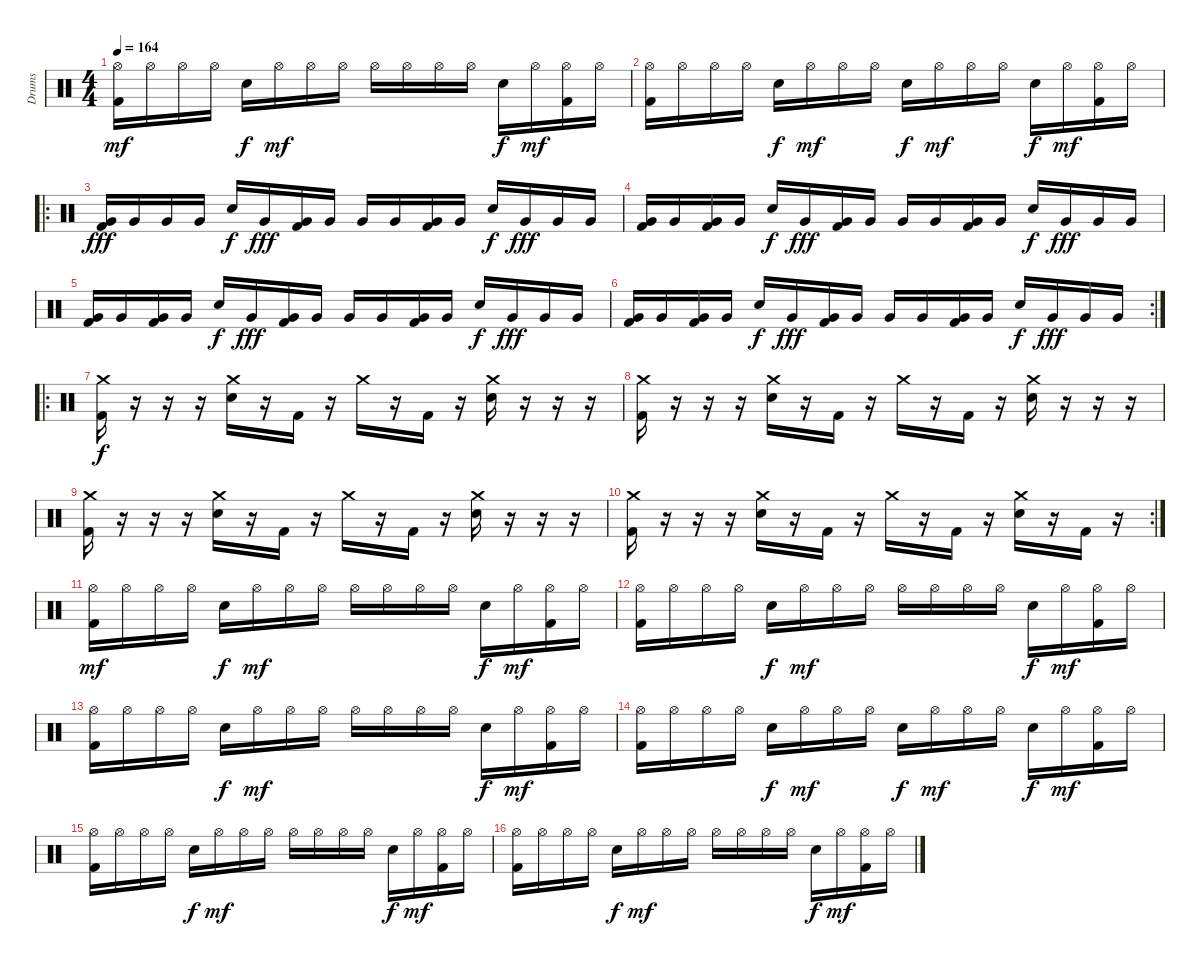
\track ("Drums" "Drums") {instrument percussion}
\staff {score}
\articulation defaults
\ts (4 4)
\tempo 164
\clef neutral
\ks c
("Hi-Hat (open)" "Kick (hit) 2").16{dy mf} "Hi-Hat (open)".16 "Hi-Hat (open)".16 "Hi-Hat (open)".16 "Snare (hit) 2".16{dy f} "Hi-Hat (open)".16{dy mf} "Hi-Hat (open)".16 "Hi-Hat (open)".16 "Hi-Hat (open)".16 "Hi-Hat (open)".16 "Hi-Hat (open)".16 "Hi-Hat (open)".16 "Snare (hit) 2".16{dy f} "Hi-Hat (open)".16{dy mf} ("Hi-Hat (open)" "Kick (hit) 2").16 "Hi-Hat (open)".16 |
("Hi-Hat (open)" "Kick (hit) 2").16 "Hi-Hat (open)".16 "Hi-Hat (open)".16 "Hi-Hat (open)".16 "Snare (hit) 2".16{dy f} "Hi-Hat (open)".16{dy mf} "Hi-Hat (open)".16 "Hi-Hat (open)".16 "Snare (hit) 2".16{dy f} "Hi-Hat (open)".16{dy mf} "Hi-Hat (open)".16 "Hi-Hat (open)".16 "Snare (hit) 2".16{dy f} "Hi-Hat (open)".16{dy mf} ("Hi-Hat (open)" "Kick (hit) 2").16 "Hi-Hat (open)".16 |
\ro
("Very Low Tom (hit)" "Kick (hit) 2").16{dy fff} "Very Low Tom (hit)".16 "Very Low Tom (hit)".16 "Very Low Tom (hit)".16 "Snare (hit) 2".16{dy f} "Very Low Tom (hit)".16{dy fff} ("Very Low Tom (hit)" "Kick (hit) 2").16 "Very Low Tom (hit)".16 "Very Low Tom (hit)".16 "Very Low Tom (hit)".16 ("Very Low Tom (hit)" "Kick (hit) 2").16 "Very Low Tom (hit)".16 "Snare (hit) 2".16{dy f} "Very Low Tom (hit)".16{dy fff} "Very Low Tom (hit)".16 "Very Low Tom (hit)".16 |
("Very Low Tom (hit)" "Kick (hit) 2").16 "Very Low Tom (hit)".16 ("Very Low Tom (hit)" "Kick (hit) 2").16 "Very Low Tom (hit)".16 "Snare (hit) 2".16{dy f} "Very Low Tom (hit)".16{dy fff} ("Very Low Tom (hit)" "Kick (hit) 2").16 "Very Low Tom (hit)".16 "Very Low Tom (hit)".16 "Very Low Tom (hit)".16 ("Very Low Tom (hit)" "Kick (hit) 2").16 "Very Low Tom (hit)".16 "Snare (hit) 2".16{dy f} "Very Low Tom (hit)".16{dy fff} "Very Low Tom (hit)".16 "Very Low Tom (hit)".16 |
("Very Low Tom (hit)" "Kick (hit) 2").16 "Very Low Tom (hit)".16 ("Very Low Tom (hit)" "Kick (hit) 2").16 "Very Low Tom (hit)".16 "Snare (hit) 2".16{dy f} "Very Low Tom (hit)".16{dy fff} ("Very Low Tom (hit)" "Kick (hit) 2").16 "Very Low Tom (hit)".16 "Very Low Tom (hit)".16 "Very Low Tom (hit)".16 ("Very Low Tom (hit)" "Kick (hit) 2").16 "Very Low Tom (hit)".16 "Snare (hit) 2".16{dy f} "Very Low Tom (hit)".16{dy fff} "Very Low Tom (hit)".16 "Very Low Tom (hit)".16 |
\rc 2
("Very Low Tom (hit)" "Kick (hit) 2").16 "Very Low Tom (hit)".16 ("Very Low Tom (hit)" "Kick (hit) 2").16 "Very Low Tom (hit)".16 "Snare (hit) 2".16{dy f} "Very Low Tom (hit)".16{dy fff} ("Very Low Tom (hit)" "Kick (hit) 2").16 "Very Low Tom (hit)".16 "Very Low Tom (hit)".16 "Very Low Tom (hit)".16 ("Very Low Tom (hit)" "Kick (hit) 2").16 "Very Low Tom (hit)".16 "Snare (hit) 2".16{dy f} "Very Low Tom (hit)".16{dy fff} "Very Low Tom (hit)".16 "Very Low Tom (hit)".16 |
\ro
("Crash medium (hit)" "Kick (hit) 2").16{dy f} r.16 r.16 r.16 ("Crash medium (hit)" "Snare (hit) 2").16 r.16 "Kick (hit) 2".16 r.16 "Crash medium (hit)".16 r.16 "Kick (hit) 2".16 r.16 ("Crash medium (hit)" "Snare (hit) 2").16 r.16 r.16 r.16 |
("Crash medium (hit)" "Kick (hit) 2").16 r.16 r.16 r.16 ("Crash medium (hit)" "Snare (hit) 2").16 r.16 "Kick (hit) 2".16 r.16 "Crash medium (hit)".16 r.16 "Kick (hit) 2".16 r.16 ("Crash medium (hit)" "Snare (hit) 2").16 r.16 r.16 r.16 |
("Crash medium (hit)" "Kick (hit) 2").16 r.16 r.16 r.16 ("Crash medium (hit)" "Snare (hit) 2").16 r.16 "Kick (hit) 2".16 r.16 "Crash medium (hit)".16 r.16 "Kick (hit) 2".16 r.16 ("Crash medium (hit)" "Snare (hit) 2").16 r.16 r.16 r.16 |
\rc 2
("Crash medium (hit)" "Kick (hit) 2").16 r.16 r.16 r.16 ("Crash medium (hit)" "Snare (hit) 2").16 r.16 "Kick (hit) 2".16 r.16 "Crash medium (hit)".16 r.16 "Kick (hit) 2".16 r.16 ("Crash medium (hit)" "Snare (hit) 2").16 r.16 "Kick (hit) 2".16 r.16 |
("Hi-Hat (open)" "Kick (hit) 2").16{dy mf} "Hi-Hat (open)".16 "Hi-Hat (open)".16 "Hi-Hat (open)".16 "Snare (hit) 2".16{dy f} "Hi-Hat (open)".16{dy mf} "Hi-Hat (open)".16 "Hi-Hat (open)".16 "Hi-Hat (open)".16 "Hi-Hat (open)".16 "Hi-Hat (open)".16 "Hi-Hat (open)".16 "Snare (hit) 2".16{dy f} "Hi-Hat (open)".16{dy mf} ("Hi-Hat (open)" "Kick (hit) 2").16 "Hi-Hat (open)".16 |
("Hi-Hat (open)" "Kick (hit) 2").16 "Hi-Hat (open)".16 "Hi-Hat (open)".16 "Hi-Hat (open)".16 "Snare (hit) 2".16{dy f} "Hi-Hat (open)".16{dy mf} "Hi-Hat (open)".16 "Hi-Hat (open)".16 "Hi-Hat (open)".16 "Hi-Hat (open)".16 "Hi-Hat (open)".16 "Hi-Hat (open)".16 "Snare (hit) 2".16{dy f} "Hi-Hat (open)".16{dy mf} ("Hi-Hat (open)" "Kick (hit) 2").16 "Hi-Hat (open)".16 |
("Hi-Hat (open)" "Kick (hit) 2").16 "Hi-Hat (open)".16 "Hi-Hat (open)".16 "Hi-Hat (open)".16 "Snare (hit) 2".16{dy f} "Hi-Hat (open)".16{dy mf} "Hi-Hat (open)".16 "Hi-Hat (open)".16 "Hi-Hat (open)".16 "Hi-Hat (open)".16 "Hi-Hat (open)".16 "Hi-Hat (open)".16 "Snare (hit) 2".16{dy f} "Hi-Hat (open)".16{dy mf} ("Hi-Hat (open)" "Kick (hit) 2").16 "Hi-Hat (open)".16 |
("Hi-Hat (open)" "Kick (hit) 2").16 "Hi-Hat (open)".16 "Hi-Hat (open)".16 "Hi-Hat (open)".16 "Snare (hit) 2".16{dy f} "Hi-Hat (open)".16{dy mf} "Hi-Hat (open)".16 "Hi-Hat (open)".16 "Snare (hit) 2".16{dy f} "Hi-Hat (open)".16{dy mf} "Hi-Hat (open)".16 "Hi-Hat (open)".16 "Snare (hit) 2".16{dy f} "Hi-Hat (open)".16{dy mf} ("Hi-Hat (open)" "Kick (hit) 2").16 "Hi-Hat (open)".16 |
("Hi-Hat (open)" "Kick (hit) 2").16 "Hi-Hat (open)".16 "Hi-Hat (open)".16 "Hi-Hat (open)".16 "Snare (hit) 2".16{dy f} "Hi-Hat (open)".16{dy mf} "Hi-Hat (open)".16 "Hi-Hat (open)".16 "Hi-Hat (open)".16 "Hi-Hat (open)".16 "Hi-Hat (open)".16 "Hi-Hat (open)".16 "Snare (hit) 2".16{dy f} "Hi-Hat (open)".16{dy mf} ("Hi-Hat (open)" "Kick (hit) 2").16 "Hi-Hat (open)".16 |
("Hi-Hat (open)" "Kick (hit) 2").16 "Hi-Hat (open)".16 "Hi-Hat (open)".16 "Hi-Hat (open)".16 "Snare (hit) 2".16{dy f} "Hi-Hat (open)".16{dy mf} "Hi-Hat (open)".16 "Hi-Hat (open)".16 "Hi-Hat (open)".16 "Hi-Hat (open)".16 "Hi-Hat (open)".16 "Hi-Hat (open)".16 "Snare (hit) 2".16{dy f} "Hi-Hat (open)".16{dy mf} ("Hi-Hat (open)" "Kick (hit) 2").16 "Hi-Hat (open)".16
